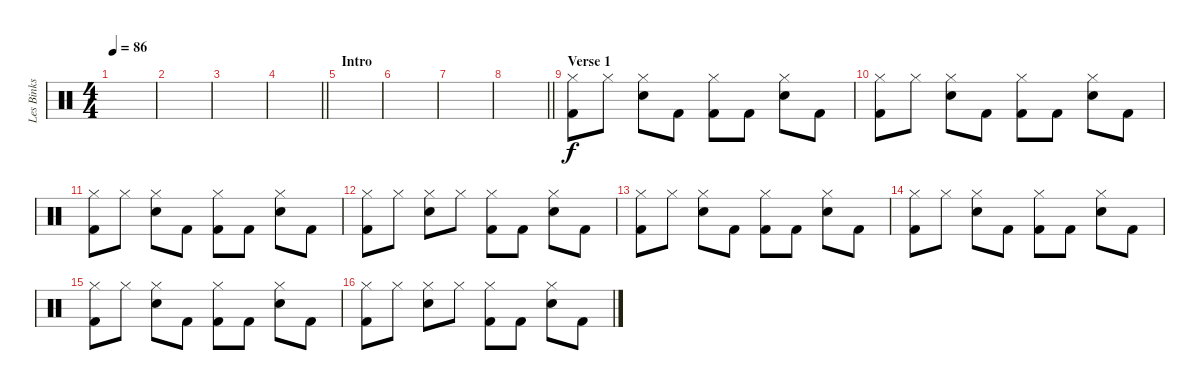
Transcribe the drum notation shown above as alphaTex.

\track ("Les Binks" "Les Binks") {instrument percussion}
\staff {score}
\articulation defaults
\ts (4 4)
\tempo 86
\clef neutral
\ks c
|
|
|
\barLineRight lightlight
|
\section ("" "Intro")
|
|
|
\barLineRight lightlight
|
\section ("" "Verse 1")
("Hi-Hat (closed)" "Kick (hit) 2").8 "Hi-Hat (closed)".8 ("Hi-Hat (closed)" "Snare (hit) 2").8 "Kick (hit) 2".8 ("Hi-Hat (closed)" "Kick (hit) 2").8 "Kick (hit) 2".8 ("Hi-Hat (closed)" "Snare (hit) 2").8 "Kick (hit) 2".8 |
("Hi-Hat (closed)" "Kick (hit) 2").8 "Hi-Hat (closed)".8 ("Hi-Hat (closed)" "Snare (hit) 2").8 "Kick (hit) 2".8 ("Hi-Hat (closed)" "Kick (hit) 2").8 "Kick (hit) 2".8 ("Hi-Hat (closed)" "Snare (hit) 2").8 "Kick (hit) 2".8 |
("Hi-Hat (closed)" "Kick (hit) 2").8 "Hi-Hat (closed)".8 ("Hi-Hat (closed)" "Snare (hit) 2").8 "Kick (hit) 2".8 ("Hi-Hat (closed)" "Kick (hit) 2").8 "Kick (hit) 2".8 ("Hi-Hat (closed)" "Snare (hit) 2").8 "Kick (hit) 2".8 |
("Hi-Hat (closed)" "Kick (hit) 2").8 "Hi-Hat (closed)".8 ("Snare (hit) 2" "Hi-Hat (closed)").8 "Hi-Hat (closed)".8 ("Hi-Hat (closed)" "Kick (hit) 2").8 "Kick (hit) 2".8 ("Hi-Hat (closed)" "Snare (hit) 2").8 "Kick (hit) 2".8 |
("Hi-Hat (closed)" "Kick (hit) 2").8 "Hi-Hat (closed)".8 ("Hi-Hat (closed)" "Snare (hit) 2").8 "Kick (hit) 2".8 ("Hi-Hat (closed)" "Kick (hit) 2").8 "Kick (hit) 2".8 ("Hi-Hat (closed)" "Snare (hit) 2").8 "Kick (hit) 2".8 |
("Hi-Hat (closed)" "Kick (hit) 2").8 "Hi-Hat (closed)".8 ("Hi-Hat (closed)" "Snare (hit) 2").8 "Kick (hit) 2".8 ("Hi-Hat (closed)" "Kick (hit) 2").8 "Kick (hit) 2".8 ("Hi-Hat (closed)" "Snare (hit) 2").8 "Kick (hit) 2".8 |
("Hi-Hat (closed)" "Kick (hit) 2").8 "Hi-Hat (closed)".8 ("Hi-Hat (closed)" "Snare (hit) 2").8 "Kick (hit) 2".8 ("Hi-Hat (closed)" "Kick (hit) 2").8 "Kick (hit) 2".8 ("Hi-Hat (closed)" "Snare (hit) 2").8 "Kick (hit) 2".8 |
("Hi-Hat (closed)" "Kick (hit) 2").8 "Hi-Hat (closed)".8 ("Snare (hit) 2" "Hi-Hat (closed)").8 "Hi-Hat (closed)".8 ("Hi-Hat (closed)" "Kick (hit) 2").8 "Kick (hit) 2".8 ("Hi-Hat (closed)" "Snare (hit) 2").8 "Kick (hit) 2".8
